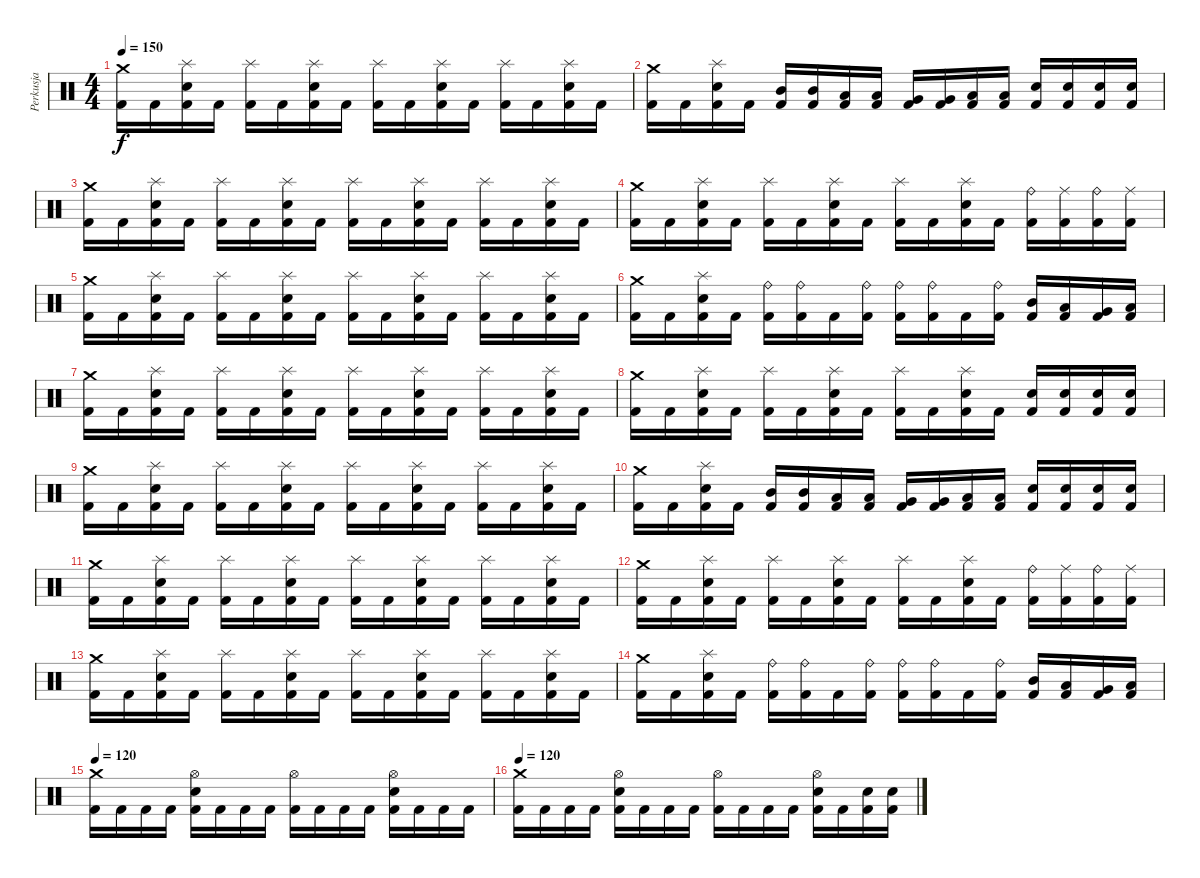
\track ("Perkusja" "Perkusja") {instrument percussion}
\staff {score}
\articulation defaults
\ts (4 4)
\tempo 150
\clef neutral
\ks c
("Crash medium (hit)" "Kick (hit) 2").16{dy f} "Kick (hit) 2".16 ("Splash (hit)" "Electric Snare (hit)" "Kick (hit) 2").16 "Kick (hit) 2".16 ("Splash (hit)" "Kick (hit) 2").16 "Kick (hit) 2".16 ("Splash (hit)" "Electric Snare (hit)" "Kick (hit) 2").16 "Kick (hit) 2".16 ("Splash (hit)" "Kick (hit) 2").16 "Kick (hit) 2".16 ("Splash (hit)" "Electric Snare (hit)" "Kick (hit) 2").16 "Kick (hit) 2".16 ("Splash (hit)" "Kick (hit) 2").16 "Kick (hit) 2".16 ("Splash (hit)" "Electric Snare (hit)" "Kick (hit) 2").16 "Kick (hit) 2".16 |
("Crash medium (hit)" "Kick (hit) 2").16 "Kick (hit) 2".16 ("Splash (hit)" "Electric Snare (hit)" "Kick (hit) 2").16 "Kick (hit) 2".16 ("Mid Tom (hit)" "Kick (hit) 2").16 ("Mid Tom (hit)" "Kick (hit) 2").16 ("Low Tom (hit)" "Kick (hit) 2").16 ("Low Tom (hit)" "Kick (hit) 2").16 ("Very Low Tom (hit)" "Kick (hit) 2").16 ("Very Low Tom (hit)" "Kick (hit) 2").16 ("Low Floor Tom (hit)" "Kick (hit) 2").16 ("Low Floor Tom (hit)" "Kick (hit) 2").16 ("Electric Snare (hit)" "Kick (hit) 2").16 ("Electric Snare (hit)" "Kick (hit) 2").16 ("Electric Snare (hit)" "Kick (hit) 2").16 ("Electric Snare (hit)" "Kick (hit) 2").16 |
("Crash medium (hit)" "Kick (hit) 2").16 "Kick (hit) 2".16 ("Splash (hit)" "Electric Snare (hit)" "Kick (hit) 2").16 "Kick (hit) 2".16 ("Splash (hit)" "Kick (hit) 2").16 "Kick (hit) 2".16 ("Splash (hit)" "Electric Snare (hit)" "Kick (hit) 2").16 "Kick (hit) 2".16 ("Splash (hit)" "Kick (hit) 2").16 "Kick (hit) 2".16 ("Splash (hit)" "Electric Snare (hit)" "Kick (hit) 2").16 "Kick (hit) 2".16 ("Splash (hit)" "Kick (hit) 2").16 "Kick (hit) 2".16 ("Splash (hit)" "Electric Snare (hit)" "Kick (hit) 2").16 "Kick (hit) 2".16 |
("Crash medium (hit)" "Kick (hit) 2").16 "Kick (hit) 2".16 ("Splash (hit)" "Electric Snare (hit)" "Kick (hit) 2").16 "Kick (hit) 2".16 ("Splash (hit)" "Kick (hit) 2").16 "Kick (hit) 2".16 ("Splash (hit)" "Electric Snare (hit)" "Kick (hit) 2").16 "Kick (hit) 2".16 ("Splash (hit)" "Kick (hit) 2").16 "Kick (hit) 2".16 ("Splash (hit)" "Electric Snare (hit)" "Kick (hit) 2").16 "Kick (hit) 2".16 ("Ride (bell)" "Kick (hit) 2").16 ("Ride (middle)" "Kick (hit) 2").16 ("Ride (bell)" "Kick (hit) 2").16 ("Ride (middle)" "Kick (hit) 2").16 |
("Crash medium (hit)" "Kick (hit) 2").16 "Kick (hit) 2".16 ("Splash (hit)" "Electric Snare (hit)" "Kick (hit) 2").16 "Kick (hit) 2".16 ("Splash (hit)" "Kick (hit) 2").16 "Kick (hit) 2".16 ("Splash (hit)" "Electric Snare (hit)" "Kick (hit) 2").16 "Kick (hit) 2".16 ("Splash (hit)" "Kick (hit) 2").16 "Kick (hit) 2".16 ("Splash (hit)" "Electric Snare (hit)" "Kick (hit) 2").16 "Kick (hit) 2".16 ("Splash (hit)" "Kick (hit) 2").16 "Kick (hit) 2".16 ("Splash (hit)" "Electric Snare (hit)" "Kick (hit) 2").16 "Kick (hit) 2".16 |
("Crash medium (hit)" "Kick (hit) 2").16 "Kick (hit) 2".16 ("Splash (hit)" "Electric Snare (hit)" "Kick (hit) 2").16 "Kick (hit) 2".16 ("Ride (bell)" "Kick (hit) 2").16 ("Ride (bell)" "Kick (hit) 2").16 "Kick (hit) 2".16 ("Ride (bell)" "Kick (hit) 2").16 ("Ride (bell)" "Kick (hit) 2").16 ("Ride (bell)" "Kick (hit) 2").16 "Kick (hit) 2".16 ("Ride (bell)" "Kick (hit) 2").16 ("Mid Tom (hit)" "Kick (hit) 2").16 ("Low Tom (hit)" "Kick (hit) 2").16 ("Very Low Tom (hit)" "Kick (hit) 2").16 ("Low Floor Tom (hit)" "Kick (hit) 2").16 |
("Crash medium (hit)" "Kick (hit) 2").16 "Kick (hit) 2".16 ("Splash (hit)" "Electric Snare (hit)" "Kick (hit) 2").16 "Kick (hit) 2".16 ("Splash (hit)" "Kick (hit) 2").16 "Kick (hit) 2".16 ("Splash (hit)" "Electric Snare (hit)" "Kick (hit) 2").16 "Kick (hit) 2".16 ("Splash (hit)" "Kick (hit) 2").16 "Kick (hit) 2".16 ("Splash (hit)" "Electric Snare (hit)" "Kick (hit) 2").16 "Kick (hit) 2".16 ("Splash (hit)" "Kick (hit) 2").16 "Kick (hit) 2".16 ("Splash (hit)" "Electric Snare (hit)" "Kick (hit) 2").16 "Kick (hit) 2".16 |
("Crash medium (hit)" "Kick (hit) 2").16 "Kick (hit) 2".16 ("Splash (hit)" "Electric Snare (hit)" "Kick (hit) 2").16 "Kick (hit) 2".16 ("Splash (hit)" "Kick (hit) 2").16 "Kick (hit) 2".16 ("Splash (hit)" "Electric Snare (hit)" "Kick (hit) 2").16 "Kick (hit) 2".16 ("Splash (hit)" "Kick (hit) 2").16 "Kick (hit) 2".16 ("Splash (hit)" "Electric Snare (hit)" "Kick (hit) 2").16 "Kick (hit) 2".16 ("Electric Snare (hit)" "Kick (hit) 2").16 ("Electric Snare (hit)" "Kick (hit) 2").16 ("Electric Snare (hit)" "Kick (hit) 2").16 ("Electric Snare (hit)" "Kick (hit) 2").16 |
("Crash medium (hit)" "Kick (hit) 2").16 "Kick (hit) 2".16 ("Splash (hit)" "Electric Snare (hit)" "Kick (hit) 2").16 "Kick (hit) 2".16 ("Splash (hit)" "Kick (hit) 2").16 "Kick (hit) 2".16 ("Splash (hit)" "Electric Snare (hit)" "Kick (hit) 2").16 "Kick (hit) 2".16 ("Splash (hit)" "Kick (hit) 2").16 "Kick (hit) 2".16 ("Splash (hit)" "Electric Snare (hit)" "Kick (hit) 2").16 "Kick (hit) 2".16 ("Splash (hit)" "Kick (hit) 2").16 "Kick (hit) 2".16 ("Splash (hit)" "Electric Snare (hit)" "Kick (hit) 2").16 "Kick (hit) 2".16 |
("Crash medium (hit)" "Kick (hit) 2").16 "Kick (hit) 2".16 ("Splash (hit)" "Electric Snare (hit)" "Kick (hit) 2").16 "Kick (hit) 2".16 ("Mid Tom (hit)" "Kick (hit) 2").16 ("Mid Tom (hit)" "Kick (hit) 2").16 ("Low Tom (hit)" "Kick (hit) 2").16 ("Low Tom (hit)" "Kick (hit) 2").16 ("Very Low Tom (hit)" "Kick (hit) 2").16 ("Very Low Tom (hit)" "Kick (hit) 2").16 ("Low Floor Tom (hit)" "Kick (hit) 2").16 ("Low Floor Tom (hit)" "Kick (hit) 2").16 ("Electric Snare (hit)" "Kick (hit) 2").16 ("Electric Snare (hit)" "Kick (hit) 2").16 ("Electric Snare (hit)" "Kick (hit) 2").16 ("Electric Snare (hit)" "Kick (hit) 2").16 |
("Crash medium (hit)" "Kick (hit) 2").16 "Kick (hit) 2".16 ("Splash (hit)" "Electric Snare (hit)" "Kick (hit) 2").16 "Kick (hit) 2".16 ("Splash (hit)" "Kick (hit) 2").16 "Kick (hit) 2".16 ("Splash (hit)" "Electric Snare (hit)" "Kick (hit) 2").16 "Kick (hit) 2".16 ("Splash (hit)" "Kick (hit) 2").16 "Kick (hit) 2".16 ("Splash (hit)" "Electric Snare (hit)" "Kick (hit) 2").16 "Kick (hit) 2".16 ("Splash (hit)" "Kick (hit) 2").16 "Kick (hit) 2".16 ("Splash (hit)" "Electric Snare (hit)" "Kick (hit) 2").16 "Kick (hit) 2".16 |
("Crash medium (hit)" "Kick (hit) 2").16 "Kick (hit) 2".16 ("Splash (hit)" "Electric Snare (hit)" "Kick (hit) 2").16 "Kick (hit) 2".16 ("Splash (hit)" "Kick (hit) 2").16 "Kick (hit) 2".16 ("Splash (hit)" "Electric Snare (hit)" "Kick (hit) 2").16 "Kick (hit) 2".16 ("Splash (hit)" "Kick (hit) 2").16 "Kick (hit) 2".16 ("Splash (hit)" "Electric Snare (hit)" "Kick (hit) 2").16 "Kick (hit) 2".16 ("Ride (bell)" "Kick (hit) 2").16 ("Ride (middle)" "Kick (hit) 2").16 ("Ride (bell)" "Kick (hit) 2").16 ("Ride (middle)" "Kick (hit) 2").16 |
("Crash medium (hit)" "Kick (hit) 2").16 "Kick (hit) 2".16 ("Splash (hit)" "Electric Snare (hit)" "Kick (hit) 2").16 "Kick (hit) 2".16 ("Splash (hit)" "Kick (hit) 2").16 "Kick (hit) 2".16 ("Splash (hit)" "Electric Snare (hit)" "Kick (hit) 2").16 "Kick (hit) 2".16 ("Splash (hit)" "Kick (hit) 2").16 "Kick (hit) 2".16 ("Splash (hit)" "Electric Snare (hit)" "Kick (hit) 2").16 "Kick (hit) 2".16 ("Splash (hit)" "Kick (hit) 2").16 "Kick (hit) 2".16 ("Splash (hit)" "Electric Snare (hit)" "Kick (hit) 2").16 "Kick (hit) 2".16 |
("Crash medium (hit)" "Kick (hit) 2").16 "Kick (hit) 2".16 ("Splash (hit)" "Electric Snare (hit)" "Kick (hit) 2").16 "Kick (hit) 2".16 ("Ride (bell)" "Kick (hit) 2").16 ("Ride (bell)" "Kick (hit) 2").16 "Kick (hit) 2".16 ("Ride (bell)" "Kick (hit) 2").16 ("Ride (bell)" "Kick (hit) 2").16 ("Ride (bell)" "Kick (hit) 2").16 "Kick (hit) 2".16 ("Ride (bell)" "Kick (hit) 2").16 ("Mid Tom (hit)" "Kick (hit) 2").16 ("Low Tom (hit)" "Kick (hit) 2").16 ("Very Low Tom (hit)" "Kick (hit) 2").16 ("Low Floor Tom (hit)" "Kick (hit) 2").16 |
\tempo 120
("Crash medium (hit)" "Kick (hit) 2").16 "Kick (hit) 2".16 "Kick (hit) 2".16 "Kick (hit) 2".16 ("Hi-Hat (open)" "Electric Snare (hit)" "Kick (hit) 2").16 "Kick (hit) 2".16 "Kick (hit) 2".16 "Kick (hit) 2".16 ("Hi-Hat (open)" "Kick (hit) 2").16 "Kick (hit) 2".16 "Kick (hit) 2".16 "Kick (hit) 2".16 ("Hi-Hat (open)" "Electric Snare (hit)" "Kick (hit) 2").16 "Kick (hit) 2".16 "Kick (hit) 2".16 "Kick (hit) 2".16 |
\tempo 120
("Crash medium (hit)" "Kick (hit) 2").16 "Kick (hit) 2".16 "Kick (hit) 2".16 "Kick (hit) 2".16 ("Hi-Hat (open)" "Electric Snare (hit)" "Kick (hit) 2").16 "Kick (hit) 2".16 "Kick (hit) 2".16 "Kick (hit) 2".16 ("Hi-Hat (open)" "Kick (hit) 2").16 "Kick (hit) 2".16 "Kick (hit) 2".16 "Kick (hit) 2".16 ("Hi-Hat (open)" "Electric Snare (hit)" "Kick (hit) 2").16 "Kick (hit) 2".16 ("Electric Snare (hit)" "Kick (hit) 2").16 ("Electric Snare (hit)" "Kick (hit) 2").16
